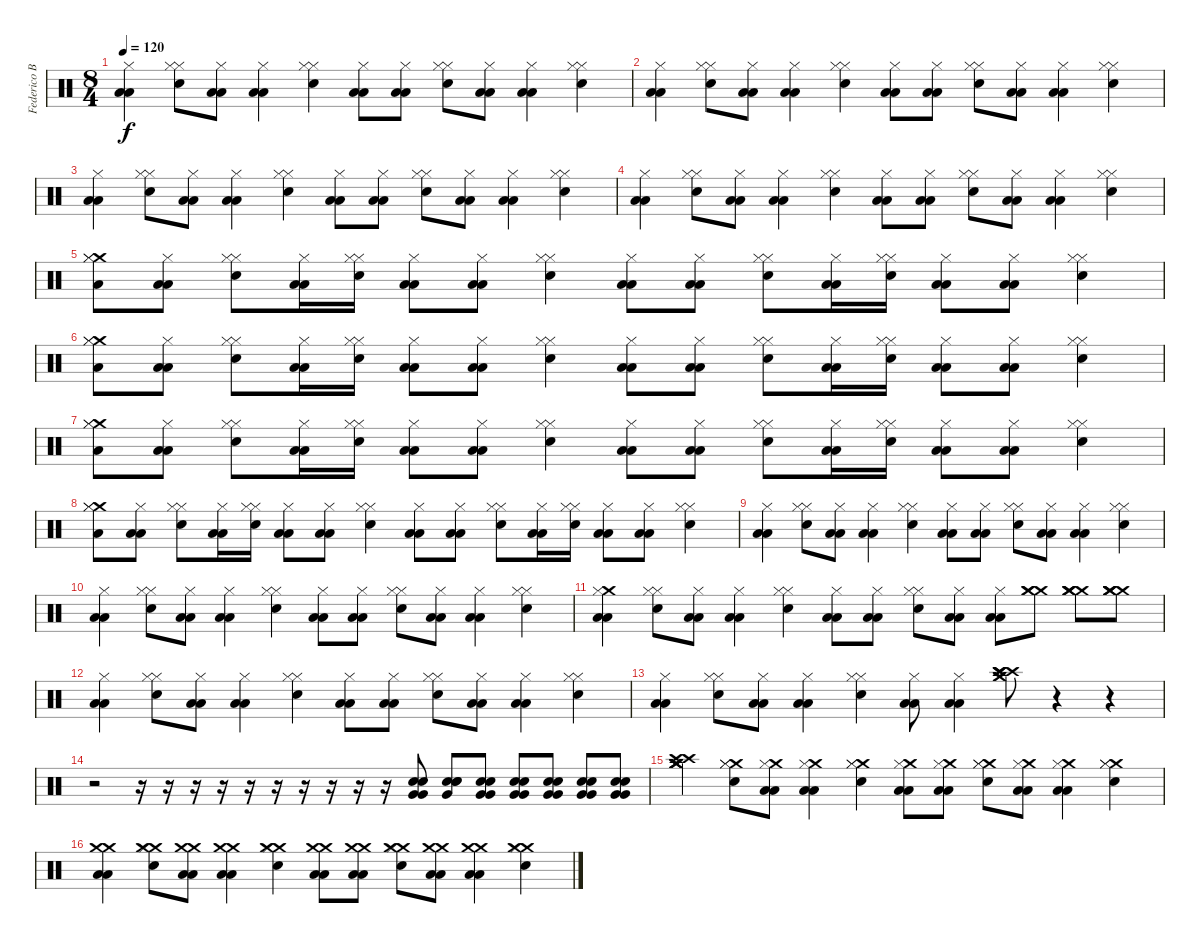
\track ("Federico Bogliaccino - Drums" "Federico B") {instrument percussion}
\staff {score}
\articulation defaults
\ts (8 4)
\tempo 120
\clef neutral
\ks c
("Hi-Hat (closed)" "Low Floor Tom (hit)" "Low Floor Tom (hit)").4{dy f} ("Hi-Hat (closed)" "Hi-Hat (closed)" "Snare (hit) 2").8 ("Hi-Hat (closed)" "Low Floor Tom (hit)" "Low Floor Tom (hit)").8 ("Hi-Hat (closed)" "Low Floor Tom (hit)" "Low Floor Tom (hit)").4 ("Hi-Hat (closed)" "Hi-Hat (closed)" "Snare (hit) 2").4 ("Hi-Hat (closed)" "Low Floor Tom (hit)" "Low Floor Tom (hit)").8 ("Hi-Hat (closed)" "Low Floor Tom (hit)" "Low Floor Tom (hit)").8 ("Hi-Hat (closed)" "Hi-Hat (closed)" "Snare (hit) 2").8 ("Hi-Hat (closed)" "Low Floor Tom (hit)" "Low Floor Tom (hit)").8 ("Hi-Hat (closed)" "Low Floor Tom (hit)" "Low Floor Tom (hit)").4 ("Hi-Hat (closed)" "Hi-Hat (closed)" "Snare (hit) 2").4 |
("Hi-Hat (closed)" "Low Floor Tom (hit)" "Low Floor Tom (hit)").4 ("Hi-Hat (closed)" "Hi-Hat (closed)" "Snare (hit) 2").8 ("Hi-Hat (closed)" "Low Floor Tom (hit)" "Low Floor Tom (hit)").8 ("Hi-Hat (closed)" "Low Floor Tom (hit)" "Low Floor Tom (hit)").4 ("Hi-Hat (closed)" "Hi-Hat (closed)" "Snare (hit) 2").4 ("Hi-Hat (closed)" "Low Floor Tom (hit)" "Low Floor Tom (hit)").8 ("Hi-Hat (closed)" "Low Floor Tom (hit)" "Low Floor Tom (hit)").8 ("Hi-Hat (closed)" "Hi-Hat (closed)" "Snare (hit) 2").8 ("Hi-Hat (closed)" "Low Floor Tom (hit)" "Low Floor Tom (hit)").8 ("Hi-Hat (closed)" "Low Floor Tom (hit)" "Low Floor Tom (hit)").4 ("Hi-Hat (closed)" "Hi-Hat (closed)" "Snare (hit) 2").4 |
("Hi-Hat (closed)" "Low Floor Tom (hit)" "Low Floor Tom (hit)").4 ("Hi-Hat (closed)" "Hi-Hat (closed)" "Snare (hit) 2").8 ("Hi-Hat (closed)" "Low Floor Tom (hit)" "Low Floor Tom (hit)").8 ("Hi-Hat (closed)" "Low Floor Tom (hit)" "Low Floor Tom (hit)").4 ("Hi-Hat (closed)" "Hi-Hat (closed)" "Snare (hit) 2").4 ("Hi-Hat (closed)" "Low Floor Tom (hit)" "Low Floor Tom (hit)").8 ("Hi-Hat (closed)" "Low Floor Tom (hit)" "Low Floor Tom (hit)").8 ("Hi-Hat (closed)" "Hi-Hat (closed)" "Snare (hit) 2").8 ("Hi-Hat (closed)" "Low Floor Tom (hit)" "Low Floor Tom (hit)").8 ("Hi-Hat (closed)" "Low Floor Tom (hit)" "Low Floor Tom (hit)").4 ("Hi-Hat (closed)" "Hi-Hat (closed)" "Snare (hit) 2").4 |
("Hi-Hat (closed)" "Low Floor Tom (hit)" "Low Floor Tom (hit)").4 ("Hi-Hat (closed)" "Hi-Hat (closed)" "Snare (hit) 2").8 ("Hi-Hat (closed)" "Low Floor Tom (hit)" "Low Floor Tom (hit)").8 ("Hi-Hat (closed)" "Low Floor Tom (hit)" "Low Floor Tom (hit)").4 ("Hi-Hat (closed)" "Hi-Hat (closed)" "Snare (hit) 2").4 ("Hi-Hat (closed)" "Low Floor Tom (hit)" "Low Floor Tom (hit)").8 ("Hi-Hat (closed)" "Low Floor Tom (hit)" "Low Floor Tom (hit)").8 ("Hi-Hat (closed)" "Hi-Hat (closed)" "Snare (hit) 2").8 ("Hi-Hat (closed)" "Low Floor Tom (hit)" "Low Floor Tom (hit)").8 ("Hi-Hat (closed)" "Low Floor Tom (hit)" "Low Floor Tom (hit)").4 ("Hi-Hat (closed)" "Hi-Hat (closed)" "Snare (hit) 2").4 |
("Crash medium (hit)" "Hi-Hat (closed)" "Hi-Hat (closed)" "Low Floor Tom (hit)").8 ("Hi-Hat (closed)" "Low Floor Tom (hit)" "Low Floor Tom (hit)").8 ("Hi-Hat (closed)" "Hi-Hat (closed)" "Snare (hit) 2").8 ("Hi-Hat (closed)" "Low Floor Tom (hit)" "Low Floor Tom (hit)").16 ("Hi-Hat (closed)" "Hi-Hat (closed)" "Snare (hit) 2").16 ("Hi-Hat (closed)" "Low Floor Tom (hit)" "Low Floor Tom (hit)").8 ("Hi-Hat (closed)" "Low Floor Tom (hit)" "Low Floor Tom (hit)").8 ("Hi-Hat (closed)" "Hi-Hat (closed)" "Snare (hit) 2").4 ("Hi-Hat (closed)" "Low Floor Tom (hit)" "Low Floor Tom (hit)").8 ("Hi-Hat (closed)" "Low Floor Tom (hit)" "Low Floor Tom (hit)").8 ("Hi-Hat (closed)" "Hi-Hat (closed)" "Snare (hit) 2").8 ("Hi-Hat (closed)" "Low Floor Tom (hit)" "Low Floor Tom (hit)").16 ("Hi-Hat (closed)" "Hi-Hat (closed)" "Snare (hit) 2").16 ("Hi-Hat (closed)" "Low Floor Tom (hit)" "Low Floor Tom (hit)").8 ("Hi-Hat (closed)" "Low Floor Tom (hit)" "Low Floor Tom (hit)").8 ("Hi-Hat (closed)" "Hi-Hat (closed)" "Snare (hit) 2").4 |
("Crash medium (hit)" "Hi-Hat (closed)" "Hi-Hat (closed)" "Low Floor Tom (hit)").8 ("Hi-Hat (closed)" "Low Floor Tom (hit)" "Low Floor Tom (hit)").8 ("Hi-Hat (closed)" "Hi-Hat (closed)" "Snare (hit) 2").8 ("Hi-Hat (closed)" "Low Floor Tom (hit)" "Low Floor Tom (hit)").16 ("Hi-Hat (closed)" "Hi-Hat (closed)" "Snare (hit) 2").16 ("Hi-Hat (closed)" "Low Floor Tom (hit)" "Low Floor Tom (hit)").8 ("Hi-Hat (closed)" "Low Floor Tom (hit)" "Low Floor Tom (hit)").8 ("Hi-Hat (closed)" "Hi-Hat (closed)" "Snare (hit) 2").4 ("Hi-Hat (closed)" "Low Floor Tom (hit)" "Low Floor Tom (hit)").8 ("Hi-Hat (closed)" "Low Floor Tom (hit)" "Low Floor Tom (hit)").8 ("Hi-Hat (closed)" "Hi-Hat (closed)" "Snare (hit) 2").8 ("Hi-Hat (closed)" "Low Floor Tom (hit)" "Low Floor Tom (hit)").16 ("Hi-Hat (closed)" "Hi-Hat (closed)" "Snare (hit) 2").16 ("Hi-Hat (closed)" "Low Floor Tom (hit)" "Low Floor Tom (hit)").8 ("Hi-Hat (closed)" "Low Floor Tom (hit)" "Low Floor Tom (hit)").8 ("Hi-Hat (closed)" "Hi-Hat (closed)" "Snare (hit) 2").4 |
("Crash medium (hit)" "Hi-Hat (closed)" "Hi-Hat (closed)" "Low Floor Tom (hit)").8 ("Hi-Hat (closed)" "Low Floor Tom (hit)" "Low Floor Tom (hit)").8 ("Hi-Hat (closed)" "Hi-Hat (closed)" "Snare (hit) 2").8 ("Hi-Hat (closed)" "Low Floor Tom (hit)" "Low Floor Tom (hit)").16 ("Hi-Hat (closed)" "Hi-Hat (closed)" "Snare (hit) 2").16 ("Hi-Hat (closed)" "Low Floor Tom (hit)" "Low Floor Tom (hit)").8 ("Hi-Hat (closed)" "Low Floor Tom (hit)" "Low Floor Tom (hit)").8 ("Hi-Hat (closed)" "Hi-Hat (closed)" "Snare (hit) 2").4 ("Hi-Hat (closed)" "Low Floor Tom (hit)" "Low Floor Tom (hit)").8 ("Hi-Hat (closed)" "Low Floor Tom (hit)" "Low Floor Tom (hit)").8 ("Hi-Hat (closed)" "Hi-Hat (closed)" "Snare (hit) 2").8 ("Hi-Hat (closed)" "Low Floor Tom (hit)" "Low Floor Tom (hit)").16 ("Hi-Hat (closed)" "Hi-Hat (closed)" "Snare (hit) 2").16 ("Hi-Hat (closed)" "Low Floor Tom (hit)" "Low Floor Tom (hit)").8 ("Hi-Hat (closed)" "Low Floor Tom (hit)" "Low Floor Tom (hit)").8 ("Hi-Hat (closed)" "Hi-Hat (closed)" "Snare (hit) 2").4 |
("Crash medium (hit)" "Hi-Hat (closed)" "Hi-Hat (closed)" "Low Floor Tom (hit)").8 ("Hi-Hat (closed)" "Low Floor Tom (hit)" "Low Floor Tom (hit)").8 ("Hi-Hat (closed)" "Hi-Hat (closed)" "Snare (hit) 2").8 ("Hi-Hat (closed)" "Low Floor Tom (hit)" "Low Floor Tom (hit)").16 ("Hi-Hat (closed)" "Hi-Hat (closed)" "Snare (hit) 2").16 ("Hi-Hat (closed)" "Low Floor Tom (hit)" "Low Floor Tom (hit)").8 ("Hi-Hat (closed)" "Low Floor Tom (hit)" "Low Floor Tom (hit)").8 ("Hi-Hat (closed)" "Hi-Hat (closed)" "Snare (hit) 2").4 ("Hi-Hat (closed)" "Low Floor Tom (hit)" "Low Floor Tom (hit)").8 ("Hi-Hat (closed)" "Low Floor Tom (hit)" "Low Floor Tom (hit)").8 ("Hi-Hat (closed)" "Hi-Hat (closed)" "Snare (hit) 2").8 ("Hi-Hat (closed)" "Low Floor Tom (hit)" "Low Floor Tom (hit)").16 ("Hi-Hat (closed)" "Hi-Hat (closed)" "Snare (hit) 2").16 ("Hi-Hat (closed)" "Low Floor Tom (hit)" "Low Floor Tom (hit)").8 ("Hi-Hat (closed)" "Low Floor Tom (hit)" "Low Floor Tom (hit)").8 ("Hi-Hat (closed)" "Hi-Hat (closed)" "Snare (hit) 2").4 |
("Hi-Hat (closed)" "Low Floor Tom (hit)" "Low Floor Tom (hit)").4 ("Hi-Hat (closed)" "Hi-Hat (closed)" "Snare (hit) 2").8 ("Hi-Hat (closed)" "Low Floor Tom (hit)" "Low Floor Tom (hit)").8 ("Hi-Hat (closed)" "Low Floor Tom (hit)" "Low Floor Tom (hit)").4 ("Hi-Hat (closed)" "Hi-Hat (closed)" "Snare (hit) 2").4 ("Hi-Hat (closed)" "Low Floor Tom (hit)" "Low Floor Tom (hit)").8 ("Hi-Hat (closed)" "Low Floor Tom (hit)" "Low Floor Tom (hit)").8 ("Hi-Hat (closed)" "Hi-Hat (closed)" "Snare (hit) 2").8 ("Hi-Hat (closed)" "Low Floor Tom (hit)" "Low Floor Tom (hit)").8 ("Hi-Hat (closed)" "Low Floor Tom (hit)" "Low Floor Tom (hit)").4 ("Hi-Hat (closed)" "Hi-Hat (closed)" "Snare (hit) 2").4 |
("Hi-Hat (closed)" "Low Floor Tom (hit)" "Low Floor Tom (hit)").4 ("Hi-Hat (closed)" "Hi-Hat (closed)" "Snare (hit) 2").8 ("Hi-Hat (closed)" "Low Floor Tom (hit)" "Low Floor Tom (hit)").8 ("Hi-Hat (closed)" "Low Floor Tom (hit)" "Low Floor Tom (hit)").4 ("Hi-Hat (closed)" "Hi-Hat (closed)" "Snare (hit) 2").4 ("Hi-Hat (closed)" "Low Floor Tom (hit)" "Low Floor Tom (hit)").8 ("Hi-Hat (closed)" "Low Floor Tom (hit)" "Low Floor Tom (hit)").8 ("Hi-Hat (closed)" "Hi-Hat (closed)" "Snare (hit) 2").8 ("Hi-Hat (closed)" "Low Floor Tom (hit)" "Low Floor Tom (hit)").8 ("Hi-Hat (closed)" "Low Floor Tom (hit)" "Low Floor Tom (hit)").4 ("Hi-Hat (closed)" "Hi-Hat (closed)" "Snare (hit) 2").4 |
("Crash medium (hit)" "Hi-Hat (closed)" "Low Floor Tom (hit)" "Low Floor Tom (hit)").4 ("Hi-Hat (closed)" "Hi-Hat (closed)" "Snare (hit) 2").8 ("Hi-Hat (closed)" "Low Floor Tom (hit)" "Low Floor Tom (hit)").8 ("Hi-Hat (closed)" "Low Floor Tom (hit)" "Low Floor Tom (hit)").4 ("Hi-Hat (closed)" "Hi-Hat (closed)" "Snare (hit) 2").4 ("Hi-Hat (closed)" "Low Floor Tom (hit)" "Low Floor Tom (hit)").8 ("Hi-Hat (closed)" "Low Floor Tom (hit)" "Low Floor Tom (hit)").8 ("Hi-Hat (closed)" "Hi-Hat (closed)" "Snare (hit) 2").8 ("Hi-Hat (closed)" "Low Floor Tom (hit)" "Low Floor Tom (hit)").8 ("Hi-Hat (closed)" "Low Floor Tom (hit)" "Low Floor Tom (hit)").8 ("Crash medium (hit)" "Crash medium (hit)" "Crash medium (hit)").8 ("Crash medium (hit)" "Crash medium (hit)" "Crash medium (hit)" "Crash medium (hit)").8 ("Crash medium (hit)" "Crash medium (hit)" "Crash medium (hit)" "Crash medium (hit)").8 |
("Hi-Hat (closed)" "Low Floor Tom (hit)" "Low Floor Tom (hit)").4 ("Hi-Hat (closed)" "Hi-Hat (closed)" "Snare (hit) 2").8 ("Hi-Hat (closed)" "Low Floor Tom (hit)" "Low Floor Tom (hit)").8 ("Hi-Hat (closed)" "Low Floor Tom (hit)" "Low Floor Tom (hit)").4 ("Hi-Hat (closed)" "Hi-Hat (closed)" "Snare (hit) 2").4 ("Hi-Hat (closed)" "Low Floor Tom (hit)" "Low Floor Tom (hit)").8 ("Hi-Hat (closed)" "Low Floor Tom (hit)" "Low Floor Tom (hit)").8 ("Hi-Hat (closed)" "Hi-Hat (closed)" "Snare (hit) 2").8 ("Hi-Hat (closed)" "Low Floor Tom (hit)" "Low Floor Tom (hit)").8 ("Hi-Hat (closed)" "Low Floor Tom (hit)" "Low Floor Tom (hit)").4 ("Hi-Hat (closed)" "Hi-Hat (closed)" "Snare (hit) 2").4 |
("Hi-Hat (closed)" "Low Floor Tom (hit)" "Low Floor Tom (hit)").4 ("Hi-Hat (closed)" "Hi-Hat (closed)" "Snare (hit) 2").8 ("Hi-Hat (closed)" "Low Floor Tom (hit)" "Low Floor Tom (hit)").8 ("Hi-Hat (closed)" "Low Floor Tom (hit)" "Low Floor Tom (hit)").4 ("Hi-Hat (closed)" "Hi-Hat (closed)" "Snare (hit) 2").4 ("Hi-Hat (closed)" "Low Floor Tom (hit)" "Low Floor Tom (hit)").8 ("Hi-Hat (closed)" "Low Floor Tom (hit)" "Low Floor Tom (hit)").4 ("Crash high (hit)" "Crash high (hit)" "Crash medium (hit)" "Crash medium (hit)" "Crash high (hit)" "Crash high (hit)").8 r.4 r.4 |
r.2 r.16 r.16 r.16 r.16 r.16 r.16 r.16 r.16 r.16 r.16 ("Very Low Tom (hit)" "Very Low Tom (hit)" "Snare (hit) 2" "Snare (hit) 2").8 ("Snare (hit) 2" "Very Low Tom (hit)" "Snare (hit) 2" "Snare (hit) 2").8 ("Very Low Tom (hit)" "Very Low Tom (hit)" "Snare (hit) 2" "Snare (hit) 2").8 ("Very Low Tom (hit)" "Very Low Tom (hit)" "Snare (hit) 2" "Snare (hit) 2").8 ("Very Low Tom (hit)" "Very Low Tom (hit)" "Snare (hit) 2" "Snare (hit) 2").8 ("Very Low Tom (hit)" "Very Low Tom (hit)" "Snare (hit) 2" "Snare (hit) 2").8 ("Very Low Tom (hit)" "Very Low Tom (hit)" "Snare (hit) 2" "Snare (hit) 2").8 |
("Crash medium (hit)" "Crash medium (hit)" "Crash high (hit)" "Crash high (hit)" "Crash medium (hit)" "Crash medium (hit)").4 ("Crash medium (hit)" "Hi-Hat (closed)" "Hi-Hat (closed)" "Snare (hit) 2").8 ("Crash medium (hit)" "Hi-Hat (closed)" "Low Floor Tom (hit)" "Low Floor Tom (hit)").8 ("Crash medium (hit)" "Hi-Hat (closed)" "Low Floor Tom (hit)" "Low Floor Tom (hit)").4 ("Crash medium (hit)" "Hi-Hat (closed)" "Hi-Hat (closed)" "Snare (hit) 2").4 ("Crash medium (hit)" "Hi-Hat (closed)" "Low Floor Tom (hit)" "Low Floor Tom (hit)").8 ("Crash medium (hit)" "Hi-Hat (closed)" "Low Floor Tom (hit)" "Low Floor Tom (hit)").8 ("Crash medium (hit)" "Hi-Hat (closed)" "Hi-Hat (closed)" "Snare (hit) 2").8 ("Crash medium (hit)" "Hi-Hat (closed)" "Low Floor Tom (hit)" "Low Floor Tom (hit)").8 ("Crash medium (hit)" "Hi-Hat (closed)" "Low Floor Tom (hit)" "Low Floor Tom (hit)").4 ("Crash medium (hit)" "Hi-Hat (closed)" "Hi-Hat (closed)" "Snare (hit) 2").4 |
("Crash medium (hit)" "Crash medium (hit)" "Low Floor Tom (hit)" "Low Floor Tom (hit)").4 ("Crash medium (hit)" "Crash medium (hit)" "Hi-Hat (closed)" "Snare (hit) 2").8 ("Crash medium (hit)" "Crash medium (hit)" "Low Floor Tom (hit)" "Low Floor Tom (hit)").8 ("Crash medium (hit)" "Crash medium (hit)" "Low Floor Tom (hit)" "Low Floor Tom (hit)").4 ("Crash medium (hit)" "Crash medium (hit)" "Hi-Hat (closed)" "Snare (hit) 2").4 ("Crash medium (hit)" "Crash medium (hit)" "Low Floor Tom (hit)" "Low Floor Tom (hit)").8 ("Crash medium (hit)" "Crash medium (hit)" "Low Floor Tom (hit)" "Low Floor Tom (hit)").8 ("Crash medium (hit)" "Crash medium (hit)" "Hi-Hat (closed)" "Snare (hit) 2").8 ("Crash medium (hit)" "Crash medium (hit)" "Low Floor Tom (hit)" "Low Floor Tom (hit)").8 ("Crash medium (hit)" "Crash medium (hit)" "Low Floor Tom (hit)" "Low Floor Tom (hit)").4 ("Crash medium (hit)" "Crash medium (hit)" "Hi-Hat (closed)" "Snare (hit) 2").4
